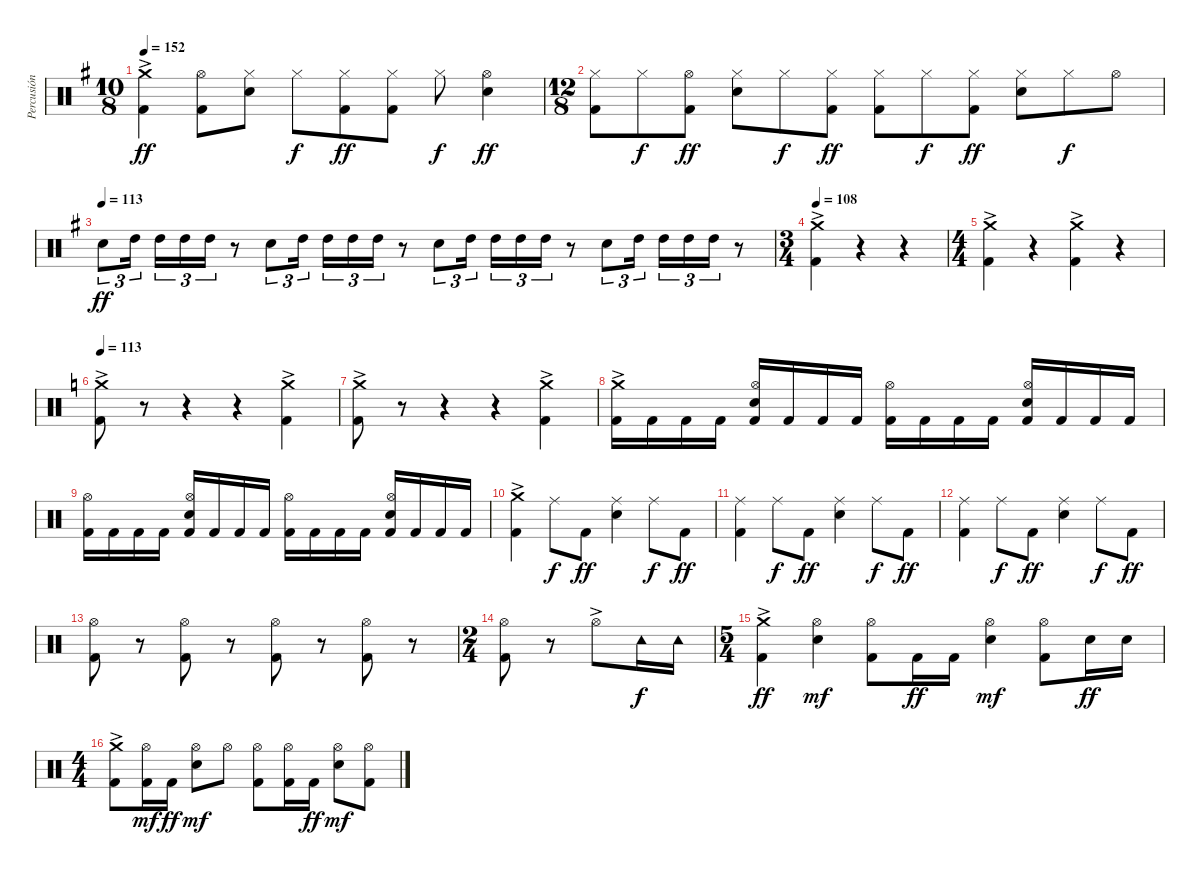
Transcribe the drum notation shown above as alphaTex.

\track ("Percusión" "Percusión") {instrument percussion}
\staff {score}
\articulation defaults
\ts (10 8)
\tempo 152
\clef neutral
\ks g
("Kick (hit) 2" "Crash medium (hit)"{ac}).4{dy ff} ("Kick (hit) 2" "Hi-Hat (open)").8 ("Electric Snare (hit)" "Hi-Hat (closed)").8 "Hi-Hat (closed)".8{dy f} ("Kick (hit) 2" "Hi-Hat (closed)").8{dy ff} ("Kick (hit) 2" "Hi-Hat (closed)").8 "Hi-Hat (closed)".8{dy f} ("Electric Snare (hit)" "Hi-Hat (open)").4{dy ff} |
\ts (12 8)
("Kick (hit) 2" "Hi-Hat (closed)").8 "Hi-Hat (closed)".8{dy f} ("Kick (hit) 2" "Hi-Hat (open)").8{dy ff} ("Electric Snare (hit)" "Hi-Hat (closed)").8 "Hi-Hat (closed)".8{dy f} ("Kick (hit) 2" "Hi-Hat (closed)").8{dy ff} ("Kick (hit) 2" "Hi-Hat (closed)").8 "Hi-Hat (closed)".8{dy f} ("Kick (hit) 2" "Hi-Hat (closed)").8{dy ff} ("Electric Snare (hit)" "Hi-Hat (closed)").8 "Hi-Hat (closed)".8{dy f} "Hi-Hat (open)".8 |
\tempo (113)
"Electric Snare (hit)".8{tu (3 2) dy ff} "High Tom (hit)".16{tu (3 2) beam splitsecondary} "High Tom (hit)".16{tu (3 2)} "High Tom (hit)".16{tu (3 2)} "High Tom (hit)".16{tu (3 2)} r.8 "Electric Snare (hit)".8{tu (3 2)} "High Tom (hit)".16{tu (3 2) beam splitsecondary} "High Tom (hit)".16{tu (3 2)} "High Tom (hit)".16{tu (3 2)} "High Tom (hit)".16{tu (3 2)} r.8 "Electric Snare (hit)".8{tu (3 2)} "High Tom (hit)".16{tu (3 2) beam splitsecondary} "High Tom (hit)".16{tu (3 2)} "High Tom (hit)".16{tu (3 2)} "High Tom (hit)".16{tu (3 2)} r.8 "Electric Snare (hit)".8{tu (3 2)} "High Tom (hit)".16{tu (3 2) beam splitsecondary} "High Tom (hit)".16{tu (3 2)} "High Tom (hit)".16{tu (3 2)} "High Tom (hit)".16{tu (3 2)} r.8 |
\ts (3 4)
\tempo 108
("Kick (hit) 2" "Crash medium (hit)"{ac}).4 r.4 r.4 |
\ts (4 4)
("Kick (hit) 2" "Crash medium (hit)"{ac}).4 r.4 ("Kick (hit) 2" "Crash medium (hit)"{ac}).4 r.4 |
\tempo 113
\ks c
("Kick (hit) 2" "Crash medium (hit)"{ac}).8 r.8 r.4 r.4 ("Kick (hit) 2" "Crash medium (hit)"{ac}).4 |
("Kick (hit) 2" "Crash medium (hit)"{ac}).8 r.8 r.4 r.4 ("Kick (hit) 2" "Crash medium (hit)"{ac}).4 |
("Kick (hit) 2" "Crash medium (hit)"{ac}).16 "Kick (hit) 2".16 "Kick (hit) 2".16 "Kick (hit) 2".16 ("Electric Snare (hit)" "Kick (hit) 2" "Hi-Hat (open)").16 "Kick (hit) 2".16 "Kick (hit) 2".16 "Kick (hit) 2".16 ("Kick (hit) 2" "Hi-Hat (open)").16 "Kick (hit) 2".16 "Kick (hit) 2".16 "Kick (hit) 2".16 ("Electric Snare (hit)" "Kick (hit) 2" "Hi-Hat (open)").16 "Kick (hit) 2".16 "Kick (hit) 2".16 "Kick (hit) 2".16 |
("Kick (hit) 2" "Hi-Hat (open)").16 "Kick (hit) 2".16 "Kick (hit) 2".16 "Kick (hit) 2".16 ("Electric Snare (hit)" "Kick (hit) 2" "Hi-Hat (open)").16 "Kick (hit) 2".16 "Kick (hit) 2".16 "Kick (hit) 2".16 ("Kick (hit) 2" "Hi-Hat (open)").16 "Kick (hit) 2".16 "Kick (hit) 2".16 "Kick (hit) 2".16 ("Electric Snare (hit)" "Kick (hit) 2" "Hi-Hat (open)").16 "Kick (hit) 2".16 "Kick (hit) 2".16 "Kick (hit) 2".16 |
("Kick (hit) 2" "Crash medium (hit)"{ac}).4 "Ride (middle)".8{dy f} "Kick (hit) 2".8{dy ff} ("Electric Snare (hit)" "Ride (middle)").4 "Ride (middle)".8{dy f} "Kick (hit) 2".8{dy ff} |
("Kick (hit) 2" "Ride (middle)").4 "Ride (middle)".8{dy f} "Kick (hit) 2".8{dy ff} ("Electric Snare (hit)" "Ride (middle)").4 "Ride (middle)".8{dy f} "Kick (hit) 2".8{dy ff} |
("Kick (hit) 2" "Ride (middle)").4 "Ride (middle)".8{dy f} "Kick (hit) 2".8{dy ff} ("Electric Snare (hit)" "Ride (middle)").4 "Ride (middle)".8{dy f} "Kick (hit) 2".8{dy ff} |
("Kick (hit) 2" "Hi-Hat (open)").8 r.8 ("Kick (hit) 2" "Hi-Hat (open)").8 r.8 ("Kick (hit) 2" "Hi-Hat (open)").8 r.8 ("Kick (hit) 2" "Hi-Hat (open)").8 r.8 |
\ts (2 4)
("Kick (hit) 2" "Hi-Hat (open)").8 r.8 "Hi-Hat (open)"{ac}.8 "Tambourine (hit)".16{dy f} "Tambourine (hit)".16 |
\ts (5 4)
("Kick (hit) 2" "Crash medium (hit)"{ac}).4{dy ff} ("Electric Snare (hit)" "Hi-Hat (open)").4{dy mf} ("Kick (hit) 2" "Hi-Hat (open)").8 "Kick (hit) 2".16{dy ff} "Kick (hit) 2".16 ("Electric Snare (hit)" "Hi-Hat (open)").4{dy mf} ("Kick (hit) 2" "Hi-Hat (open)").8 "Electric Snare (hit)".16{dy ff} "Electric Snare (hit)".16 |
\ts (4 4)
("Kick (hit) 2" "Crash medium (hit)"{ac}).8 ("Kick (hit) 2" "Hi-Hat (open)").16{dy mf} "Kick (hit) 2".16{dy ff} ("Electric Snare (hit)" "Hi-Hat (open)").8{dy mf} "Hi-Hat (open)".8 ("Kick (hit) 2" "Hi-Hat (open)").8 ("Kick (hit) 2" "Hi-Hat (open)").16 "Kick (hit) 2".16{dy ff} ("Electric Snare (hit)" "Hi-Hat (open)").8{dy mf} ("Kick (hit) 2" "Hi-Hat (open)").8
